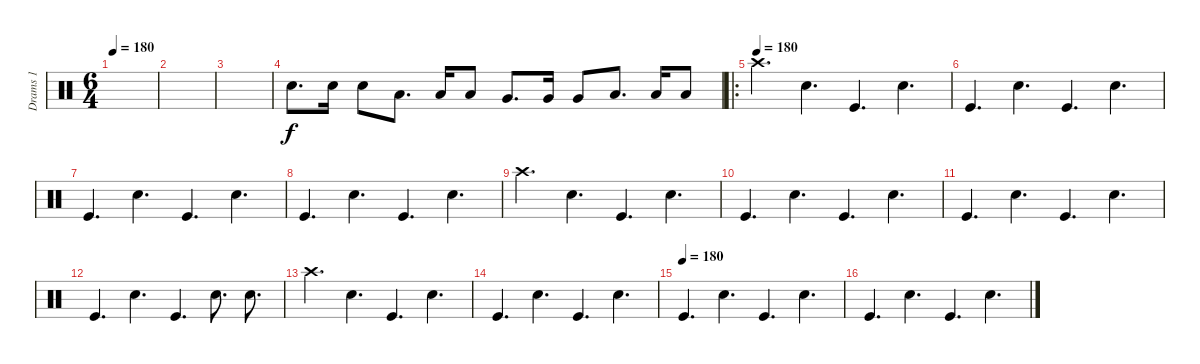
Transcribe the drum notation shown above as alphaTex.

\track ("Drams 1" "Drams 1") {instrument percussion}
\staff {score}
\articulation defaults
\ts (6 4)
\tempo 180
\clef neutral
\ks c
|
|
|
"Snare (hit) 2".8{d} "Snare (hit) 2".16 "Snare (hit) 2".8 "Low Tom (hit)".8{d} "Low Tom (hit)".16 "Low Tom (hit)".8 "Very Low Tom (hit)".8{d} "Very Low Tom (hit)".16 "Very Low Tom (hit)".8 "Low Floor Tom (hit)".8{d} "Low Floor Tom (hit)".16 "Low Floor Tom (hit)".8 |
\ro
\tempo (180)
"Crash high (hit)".4{d} "Snare (hit) 2".4{d} "Kick (hit)".4{d} "Snare (hit) 2".4{d} |
"Kick (hit)".4{d} "Snare (hit) 2".4{d} "Kick (hit)".4{d} "Snare (hit) 2".4{d} |
"Kick (hit)".4{d} "Snare (hit) 2".4{d} "Kick (hit)".4{d} "Snare (hit) 2".4{d} |
"Kick (hit)".4{d} "Snare (hit) 2".4{d} "Kick (hit)".4{d} "Snare (hit) 2".4{d} |
"Crash high (hit)".4{d} "Snare (hit) 2".4{d} "Kick (hit)".4{d} "Snare (hit) 2".4{d} |
"Kick (hit)".4{d} "Snare (hit) 2".4{d} "Kick (hit)".4{d} "Snare (hit) 2".4{d} |
"Kick (hit)".4{d} "Snare (hit) 2".4{d} "Kick (hit)".4{d} "Snare (hit) 2".4{d} |
"Kick (hit)".4{d} "Snare (hit) 2".4{d} "Kick (hit)".4{d} "Snare (hit) 2".8{d} "Snare (hit) 2".8{d} |
"Crash high (hit)".4{d} "Snare (hit) 2".4{d} "Kick (hit)".4{d} "Snare (hit) 2".4{d} |
"Kick (hit)".4{d} "Snare (hit) 2".4{d} "Kick (hit)".4{d} "Snare (hit) 2".4{d} |
\tempo (180)
"Kick (hit)".4{d} "Snare (hit) 2".4{d} "Kick (hit)".4{d} "Snare (hit) 2".4{d} |
"Kick (hit)".4{d} "Snare (hit) 2".4{d} "Kick (hit)".4{d} "Snare (hit) 2".4{d}
